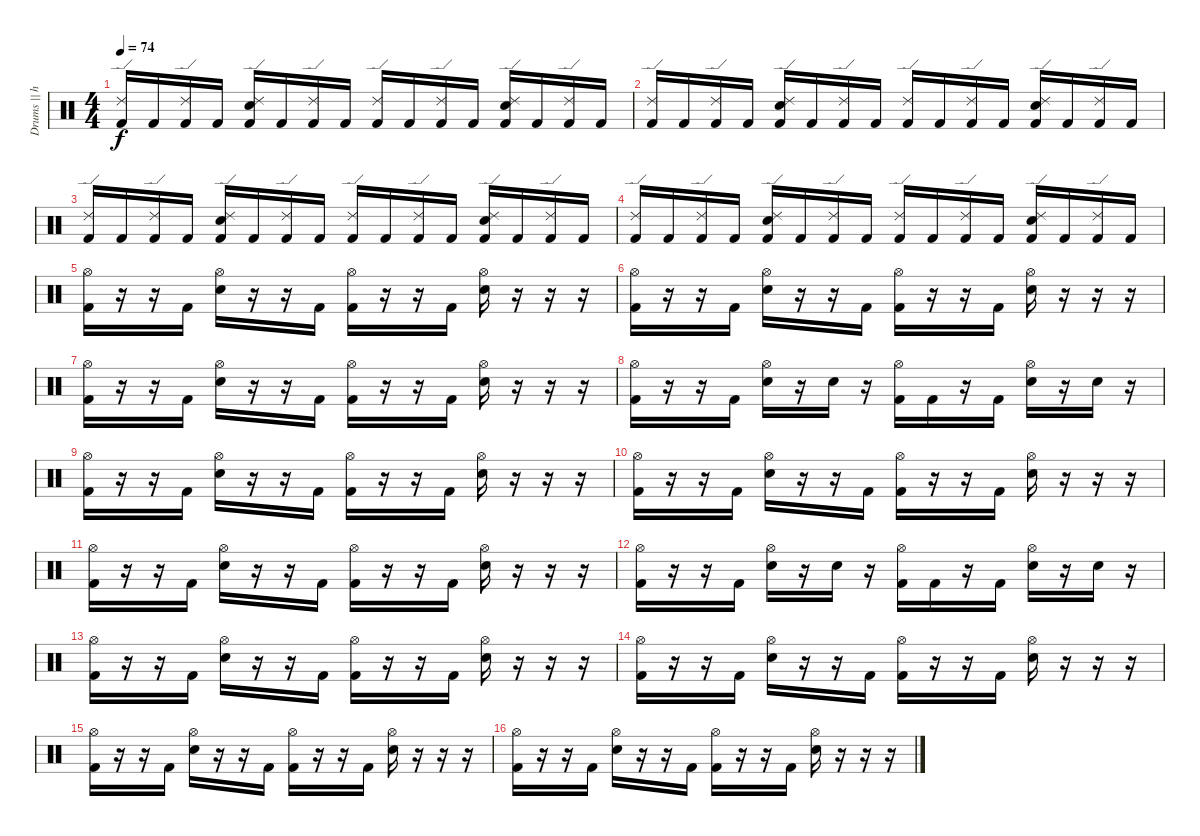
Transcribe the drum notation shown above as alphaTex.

\track ("Drums || have a look at my other tabs!" "Drums || h") {instrument percussion}
\staff {score}
\articulation defaults
\ts (4 4)
\tempo 74
\clef neutral
\ks c
("Ride (edge) 2" "Kick (hit) 2").16{dy f} "Kick (hit) 2".16 ("Ride (edge) 2" "Kick (hit) 2").16 "Kick (hit) 2".16 ("Ride (edge) 2" "Electric Snare (hit)" "Kick (hit) 2").16 "Kick (hit) 2".16 ("Ride (edge) 2" "Kick (hit) 2").16 "Kick (hit) 2".16 ("Ride (edge) 2" "Kick (hit) 2").16 "Kick (hit) 2".16 ("Ride (edge) 2" "Kick (hit) 2").16 "Kick (hit) 2".16 ("Ride (edge) 2" "Electric Snare (hit)" "Kick (hit) 2").16 "Kick (hit) 2".16 ("Ride (edge) 2" "Kick (hit) 2").16 "Kick (hit) 2".16 |
("Ride (edge) 2" "Kick (hit) 2").16 "Kick (hit) 2".16 ("Ride (edge) 2" "Kick (hit) 2").16 "Kick (hit) 2".16 ("Ride (edge) 2" "Electric Snare (hit)" "Kick (hit) 2").16 "Kick (hit) 2".16 ("Ride (edge) 2" "Kick (hit) 2").16 "Kick (hit) 2".16 ("Ride (edge) 2" "Kick (hit) 2").16 "Kick (hit) 2".16 ("Ride (edge) 2" "Kick (hit) 2").16 "Kick (hit) 2".16 ("Ride (edge) 2" "Electric Snare (hit)" "Kick (hit) 2").16 "Kick (hit) 2".16 ("Ride (edge) 2" "Kick (hit) 2").16 "Kick (hit) 2".16 |
("Ride (edge) 2" "Kick (hit) 2").16 "Kick (hit) 2".16 ("Ride (edge) 2" "Kick (hit) 2").16 "Kick (hit) 2".16 ("Ride (edge) 2" "Electric Snare (hit)" "Kick (hit) 2").16 "Kick (hit) 2".16 ("Ride (edge) 2" "Kick (hit) 2").16 "Kick (hit) 2".16 ("Ride (edge) 2" "Kick (hit) 2").16 "Kick (hit) 2".16 ("Ride (edge) 2" "Kick (hit) 2").16 "Kick (hit) 2".16 ("Ride (edge) 2" "Electric Snare (hit)" "Kick (hit) 2").16 "Kick (hit) 2".16 ("Ride (edge) 2" "Kick (hit) 2").16 "Kick (hit) 2".16 |
("Ride (edge) 2" "Kick (hit) 2").16 "Kick (hit) 2".16 ("Ride (edge) 2" "Kick (hit) 2").16 "Kick (hit) 2".16 ("Ride (edge) 2" "Electric Snare (hit)" "Kick (hit) 2").16 "Kick (hit) 2".16 ("Ride (edge) 2" "Kick (hit) 2").16 "Kick (hit) 2".16 ("Ride (edge) 2" "Kick (hit) 2").16 "Kick (hit) 2".16 ("Ride (edge) 2" "Kick (hit) 2").16 "Kick (hit) 2".16 ("Ride (edge) 2" "Electric Snare (hit)" "Kick (hit) 2").16 "Kick (hit) 2".16 ("Ride (edge) 2" "Kick (hit) 2").16 "Kick (hit) 2".16 |
("Hi-Hat (open)" "Kick (hit) 2").16 r.16 r.16 "Kick (hit) 2".16 ("Hi-Hat (open)" "Electric Snare (hit)").16 r.16 r.16 "Kick (hit) 2".16 ("Hi-Hat (open)" "Kick (hit) 2").16 r.16 r.16 "Kick (hit) 2".16 ("Hi-Hat (open)" "Electric Snare (hit)").16 r.16 r.16 r.16 |
("Hi-Hat (open)" "Kick (hit) 2").16 r.16 r.16 "Kick (hit) 2".16 ("Hi-Hat (open)" "Electric Snare (hit)").16 r.16 r.16 "Kick (hit) 2".16 ("Hi-Hat (open)" "Kick (hit) 2").16 r.16 r.16 "Kick (hit) 2".16 ("Hi-Hat (open)" "Electric Snare (hit)").16 r.16 r.16 r.16 |
("Hi-Hat (open)" "Kick (hit) 2").16 r.16 r.16 "Kick (hit) 2".16 ("Hi-Hat (open)" "Electric Snare (hit)").16 r.16 r.16 "Kick (hit) 2".16 ("Hi-Hat (open)" "Kick (hit) 2").16 r.16 r.16 "Kick (hit) 2".16 ("Hi-Hat (open)" "Electric Snare (hit)").16 r.16 r.16 r.16 |
("Hi-Hat (open)" "Kick (hit) 2").16 r.16 r.16 "Kick (hit) 2".16 ("Hi-Hat (open)" "Electric Snare (hit)").16 r.16 "Electric Snare (hit)".16 r.16 ("Hi-Hat (open)" "Kick (hit) 2").16 "Kick (hit) 2".16 r.16 "Kick (hit) 2".16 ("Hi-Hat (open)" "Electric Snare (hit)").16 r.16 "Electric Snare (hit)".16 r.16 |
("Hi-Hat (open)" "Kick (hit) 2").16 r.16 r.16 "Kick (hit) 2".16 ("Hi-Hat (open)" "Electric Snare (hit)").16 r.16 r.16 "Kick (hit) 2".16 ("Hi-Hat (open)" "Kick (hit) 2").16 r.16 r.16 "Kick (hit) 2".16 ("Hi-Hat (open)" "Electric Snare (hit)").16 r.16 r.16 r.16 |
("Hi-Hat (open)" "Kick (hit) 2").16 r.16 r.16 "Kick (hit) 2".16 ("Hi-Hat (open)" "Electric Snare (hit)").16 r.16 r.16 "Kick (hit) 2".16 ("Hi-Hat (open)" "Kick (hit) 2").16 r.16 r.16 "Kick (hit) 2".16 ("Hi-Hat (open)" "Electric Snare (hit)").16 r.16 r.16 r.16 |
("Hi-Hat (open)" "Kick (hit) 2").16 r.16 r.16 "Kick (hit) 2".16 ("Hi-Hat (open)" "Electric Snare (hit)").16 r.16 r.16 "Kick (hit) 2".16 ("Hi-Hat (open)" "Kick (hit) 2").16 r.16 r.16 "Kick (hit) 2".16 ("Hi-Hat (open)" "Electric Snare (hit)").16 r.16 r.16 r.16 |
("Hi-Hat (open)" "Kick (hit) 2").16 r.16 r.16 "Kick (hit) 2".16 ("Hi-Hat (open)" "Electric Snare (hit)").16 r.16 "Electric Snare (hit)".16 r.16 ("Hi-Hat (open)" "Kick (hit) 2").16 "Kick (hit) 2".16 r.16 "Kick (hit) 2".16 ("Hi-Hat (open)" "Electric Snare (hit)").16 r.16 "Electric Snare (hit)".16 r.16 |
("Hi-Hat (open)" "Kick (hit) 2").16 r.16 r.16 "Kick (hit) 2".16 ("Hi-Hat (open)" "Electric Snare (hit)").16 r.16 r.16 "Kick (hit) 2".16 ("Hi-Hat (open)" "Kick (hit) 2").16 r.16 r.16 "Kick (hit) 2".16 ("Hi-Hat (open)" "Electric Snare (hit)").16 r.16 r.16 r.16 |
("Hi-Hat (open)" "Kick (hit) 2").16 r.16 r.16 "Kick (hit) 2".16 ("Hi-Hat (open)" "Electric Snare (hit)").16 r.16 r.16 "Kick (hit) 2".16 ("Hi-Hat (open)" "Kick (hit) 2").16 r.16 r.16 "Kick (hit) 2".16 ("Hi-Hat (open)" "Electric Snare (hit)").16 r.16 r.16 r.16 |
("Hi-Hat (open)" "Kick (hit) 2").16 r.16 r.16 "Kick (hit) 2".16 ("Hi-Hat (open)" "Electric Snare (hit)").16 r.16 r.16 "Kick (hit) 2".16 ("Hi-Hat (open)" "Kick (hit) 2").16 r.16 r.16 "Kick (hit) 2".16 ("Hi-Hat (open)" "Electric Snare (hit)").16 r.16 r.16 r.16 |
("Hi-Hat (open)" "Kick (hit) 2").16 r.16 r.16 "Kick (hit) 2".16 ("Hi-Hat (open)" "Electric Snare (hit)").16 r.16 r.16 "Kick (hit) 2".16 ("Hi-Hat (open)" "Kick (hit) 2").16 r.16 r.16 "Kick (hit) 2".16 ("Hi-Hat (open)" "Electric Snare (hit)").16 r.16 r.16 r.16
